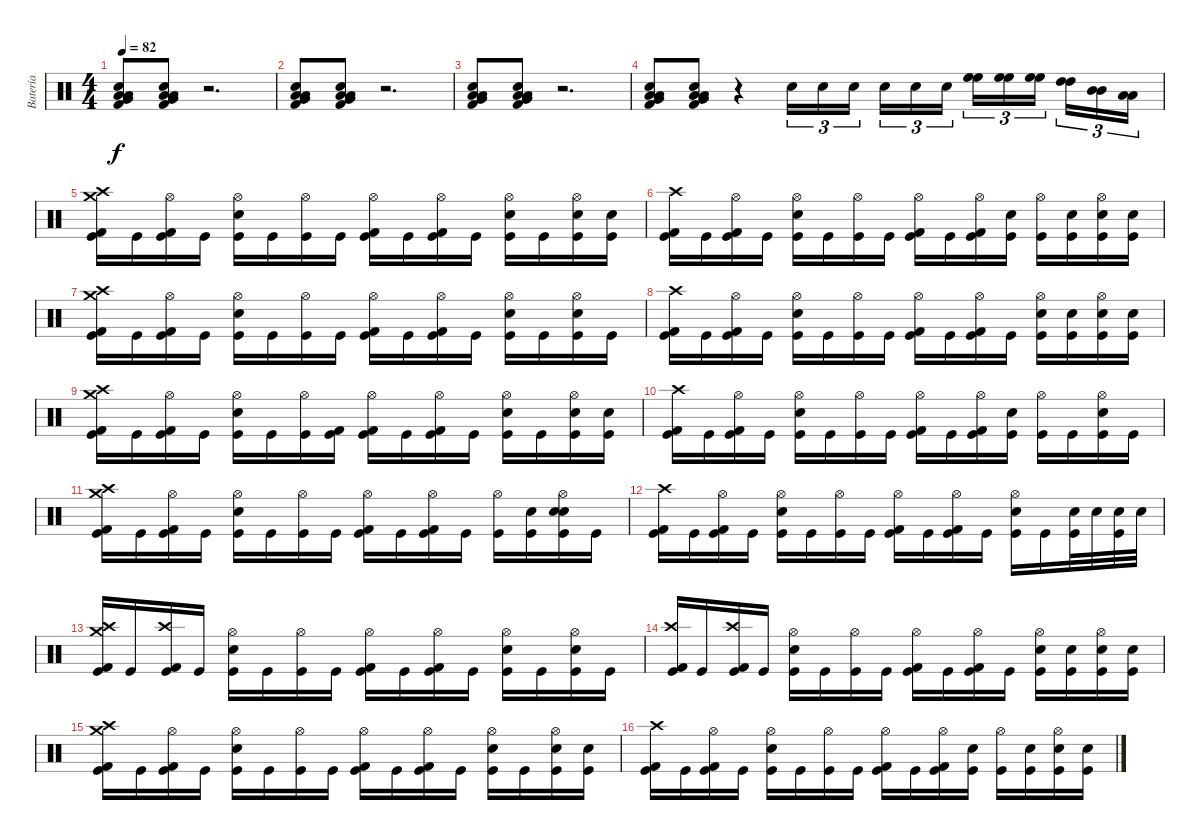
\track ("Batería" "Batería") {instrument percussion}
\staff {score}
\articulation defaults
\ts (4 4)
\tempo 82
\clef neutral
\ks c
("Kick (hit) 2" "Low Tom (hit)" "Very Low Tom (hit)" "Low Floor Tom (hit)" "Snare (hit) 2").8{dy f} ("Kick (hit) 2" "Low Tom (hit)" "Very Low Tom (hit)" "Low Floor Tom (hit)" "Snare (hit) 2").8 r.2{d} |
("Kick (hit) 2" "Low Tom (hit)" "Very Low Tom (hit)" "Low Floor Tom (hit)" "Snare (hit) 2").8 ("Kick (hit) 2" "Low Tom (hit)" "Very Low Tom (hit)" "Low Floor Tom (hit)" "Snare (hit) 2").8 r.2{d} |
("Kick (hit) 2" "Low Tom (hit)" "Very Low Tom (hit)" "Low Floor Tom (hit)" "Snare (hit) 2").8 ("Kick (hit) 2" "Low Tom (hit)" "Very Low Tom (hit)" "Low Floor Tom (hit)" "Snare (hit) 2").8 r.2{d} |
("Kick (hit) 2" "Low Tom (hit)" "Very Low Tom (hit)" "Low Floor Tom (hit)" "Snare (hit) 2").8 ("Kick (hit) 2" "Low Tom (hit)" "Very Low Tom (hit)" "Low Floor Tom (hit)" "Snare (hit) 2").8 r.4 "Snare (hit) 2".16{tu (3 2)} "Snare (hit) 2".16{tu (3 2)} "Snare (hit) 2".16{tu (3 2)} "Snare (hit) 2".16{tu (3 2)} "Snare (hit) 2".16{tu (3 2)} "Snare (hit) 2".16{tu (3 2)} ("High Floor Tom (hit)" "High Floor Tom (hit)").16{tu (3 2)} ("High Floor Tom (hit)" "High Floor Tom (hit)").16{tu (3 2)} ("High Floor Tom (hit)" "High Floor Tom (hit)").16{tu (3 2)} ("High Tom (hit)" "High Tom (hit)").16{tu (3 2)} ("Mid Tom (hit)" "Mid Tom (hit)").16{tu (3 2)} ("Low Tom (hit)" "Low Tom (hit)").16{tu (3 2)} |
("Crash high (hit)" "Crash medium (hit)" "Kick (hit) 2" "Kick (hit)").16 "Kick (hit)".16 ("Hi-Hat (open)" "Kick (hit) 2" "Kick (hit)").16 "Kick (hit)".16 ("Hi-Hat (open)" "Snare (hit) 2" "Kick (hit)").16 "Kick (hit)".16 ("Hi-Hat (open)" "Kick (hit)").16 "Kick (hit)".16 ("Hi-Hat (open)" "Kick (hit) 2" "Kick (hit)").16 "Kick (hit)".16 ("Hi-Hat (open)" "Kick (hit) 2" "Kick (hit)").16 "Kick (hit)".16 ("Hi-Hat (open)" "Snare (hit) 2" "Kick (hit)").16 "Kick (hit)".16 ("Hi-Hat (open)" "Snare (hit) 2" "Kick (hit)").16 ("Snare (hit) 2" "Kick (hit)").16 |
("Crash high (hit)" "Kick (hit) 2" "Kick (hit)").16 "Kick (hit)".16 ("Hi-Hat (open)" "Kick (hit) 2" "Kick (hit)").16 "Kick (hit)".16 ("Hi-Hat (open)" "Snare (hit) 2" "Kick (hit)").16 "Kick (hit)".16 ("Hi-Hat (open)" "Kick (hit)").16 "Kick (hit)".16 ("Hi-Hat (open)" "Kick (hit) 2" "Kick (hit)").16 "Kick (hit)".16 ("Hi-Hat (open)" "Kick (hit) 2" "Kick (hit)").16 ("Snare (hit) 2" "Kick (hit)").16 ("Hi-Hat (open)" "Kick (hit)").16 ("Snare (hit) 2" "Kick (hit)").16 ("Hi-Hat (open)" "Snare (hit) 2" "Kick (hit)").16 ("Snare (hit) 2" "Kick (hit)").16 |
("Crash high (hit)" "Crash medium (hit)" "Kick (hit) 2" "Kick (hit)").16 "Kick (hit)".16 ("Hi-Hat (open)" "Kick (hit) 2" "Kick (hit)").16 "Kick (hit)".16 ("Hi-Hat (open)" "Snare (hit) 2" "Kick (hit)").16 "Kick (hit)".16 ("Hi-Hat (open)" "Kick (hit)").16 "Kick (hit)".16 ("Hi-Hat (open)" "Kick (hit) 2" "Kick (hit)").16 "Kick (hit)".16 ("Hi-Hat (open)" "Kick (hit) 2" "Kick (hit)").16 "Kick (hit)".16 ("Hi-Hat (open)" "Snare (hit) 2" "Kick (hit)").16 "Kick (hit)".16 ("Hi-Hat (open)" "Snare (hit) 2" "Kick (hit)").16 "Kick (hit)".16 |
("Crash high (hit)" "Kick (hit) 2" "Kick (hit)").16 "Kick (hit)".16 ("Hi-Hat (open)" "Kick (hit) 2" "Kick (hit)").16 "Kick (hit)".16 ("Hi-Hat (open)" "Snare (hit) 2" "Kick (hit)").16 "Kick (hit)".16 ("Hi-Hat (open)" "Kick (hit)").16 "Kick (hit)".16 ("Hi-Hat (open)" "Kick (hit) 2" "Kick (hit)").16 "Kick (hit)".16 ("Hi-Hat (open)" "Kick (hit) 2" "Kick (hit)").16 "Kick (hit)".16 ("Hi-Hat (open)" "Snare (hit) 2" "Kick (hit)").16 ("Snare (hit) 2" "Kick (hit)").16 ("Hi-Hat (open)" "Snare (hit) 2" "Kick (hit)").16 ("Snare (hit) 2" "Kick (hit)").16 |
("Crash high (hit)" "Crash medium (hit)" "Kick (hit) 2" "Kick (hit)").16 "Kick (hit)".16 ("Hi-Hat (open)" "Kick (hit) 2" "Kick (hit)").16 "Kick (hit)".16 ("Hi-Hat (open)" "Snare (hit) 2" "Kick (hit)").16 "Kick (hit)".16 ("Hi-Hat (open)" "Kick (hit)").16 ("Kick (hit) 2" "Kick (hit)").16 ("Hi-Hat (open)" "Kick (hit) 2" "Kick (hit)").16 "Kick (hit)".16 ("Hi-Hat (open)" "Kick (hit) 2" "Kick (hit)").16 "Kick (hit)".16 ("Hi-Hat (open)" "Snare (hit) 2" "Kick (hit)").16 "Kick (hit)".16 ("Hi-Hat (open)" "Snare (hit) 2" "Kick (hit)").16 ("Snare (hit) 2" "Kick (hit)").16 |
("Crash high (hit)" "Kick (hit) 2" "Kick (hit)").16 "Kick (hit)".16 ("Hi-Hat (open)" "Kick (hit) 2" "Kick (hit)").16 "Kick (hit)".16 ("Hi-Hat (open)" "Snare (hit) 2" "Kick (hit)").16 "Kick (hit)".16 ("Hi-Hat (open)" "Kick (hit)").16 "Kick (hit)".16 ("Hi-Hat (open)" "Kick (hit) 2" "Kick (hit)").16 "Kick (hit)".16 ("Hi-Hat (open)" "Kick (hit) 2" "Kick (hit)").16 ("Snare (hit) 2" "Kick (hit)").16 ("Hi-Hat (open)" "Kick (hit)").16 "Kick (hit)".16 ("Hi-Hat (open)" "Snare (hit) 2" "Kick (hit)").16 "Kick (hit)".16 |
("Crash high (hit)" "Crash medium (hit)" "Kick (hit) 2" "Kick (hit)").16 "Kick (hit)".16 ("Hi-Hat (open)" "Kick (hit) 2" "Kick (hit)").16 "Kick (hit)".16 ("Hi-Hat (open)" "Snare (hit) 2" "Kick (hit)").16 "Kick (hit)".16 ("Hi-Hat (open)" "Kick (hit)").16 "Kick (hit)".16 ("Hi-Hat (open)" "Kick (hit) 2" "Kick (hit)").16 "Kick (hit)".16 ("Hi-Hat (open)" "Kick (hit) 2" "Kick (hit)").16 "Kick (hit)".16 ("Hi-Hat (open)" "Kick (hit)").16 ("Snare (hit) 2" "Kick (hit)").16 ("Hi-Hat (open)" "Snare (hit) 2" "Snare (hit) 2" "Kick (hit)").16{bd 240} "Kick (hit)".16{bd 240} |
("Crash high (hit)" "Kick (hit) 2" "Kick (hit)").16 "Kick (hit)".16 ("Hi-Hat (open)" "Kick (hit) 2" "Kick (hit)").16 "Kick (hit)".16 ("Hi-Hat (open)" "Snare (hit) 2" "Kick (hit)").16 "Kick (hit)".16 ("Hi-Hat (open)" "Kick (hit)").16 "Kick (hit)".16 ("Hi-Hat (open)" "Kick (hit) 2" "Kick (hit)").16 "Kick (hit)".16 ("Hi-Hat (open)" "Kick (hit) 2" "Kick (hit)").16 "Kick (hit)".16 ("Hi-Hat (open)" "Snare (hit) 2" "Kick (hit)").16 "Kick (hit)".16 ("Snare (hit) 2" "Kick (hit)").32 "Snare (hit) 2".32 ("Snare (hit) 2" "Kick (hit)").32 "Snare (hit) 2".32 |
("Crash high (hit)" "Crash medium (hit)" "Kick (hit) 2" "Kick (hit)").16 "Kick (hit)".16 ("Crash high (hit)" "Kick (hit) 2" "Kick (hit)").16 "Kick (hit)".16 ("Hi-Hat (open)" "Snare (hit) 2" "Kick (hit)").16 "Kick (hit)".16 ("Hi-Hat (open)" "Kick (hit)").16 "Kick (hit)".16 ("Hi-Hat (open)" "Kick (hit) 2" "Kick (hit)").16 "Kick (hit)".16 ("Hi-Hat (open)" "Kick (hit) 2" "Kick (hit)").16 "Kick (hit)".16 ("Hi-Hat (open)" "Snare (hit) 2" "Kick (hit)").16 "Kick (hit)".16 ("Hi-Hat (open)" "Snare (hit) 2" "Kick (hit)").16 "Kick (hit)".16 |
("Crash high (hit)" "Kick (hit) 2" "Kick (hit)").16 "Kick (hit)".16 ("Crash high (hit)" "Kick (hit) 2" "Kick (hit)").16 "Kick (hit)".16 ("Hi-Hat (open)" "Snare (hit) 2" "Kick (hit)").16 "Kick (hit)".16 ("Hi-Hat (open)" "Kick (hit)").16 "Kick (hit)".16 ("Hi-Hat (open)" "Kick (hit) 2" "Kick (hit)").16 "Kick (hit)".16 ("Hi-Hat (open)" "Kick (hit) 2" "Kick (hit)").16 "Kick (hit)".16 ("Hi-Hat (open)" "Snare (hit) 2" "Kick (hit)").16 ("Snare (hit) 2" "Kick (hit)").16 ("Hi-Hat (open)" "Snare (hit) 2" "Kick (hit)").16 ("Snare (hit) 2" "Kick (hit)").16 |
("Crash high (hit)" "Crash medium (hit)" "Kick (hit) 2" "Kick (hit)").16 "Kick (hit)".16 ("Hi-Hat (open)" "Kick (hit) 2" "Kick (hit)").16 "Kick (hit)".16 ("Hi-Hat (open)" "Snare (hit) 2" "Kick (hit)").16 "Kick (hit)".16 ("Hi-Hat (open)" "Kick (hit)").16 "Kick (hit)".16 ("Hi-Hat (open)" "Kick (hit) 2" "Kick (hit)").16 "Kick (hit)".16 ("Hi-Hat (open)" "Kick (hit) 2" "Kick (hit)").16 "Kick (hit)".16 ("Hi-Hat (open)" "Snare (hit) 2" "Kick (hit)").16 "Kick (hit)".16 ("Hi-Hat (open)" "Snare (hit) 2" "Kick (hit)").16 ("Snare (hit) 2" "Kick (hit)").16 |
("Crash high (hit)" "Kick (hit) 2" "Kick (hit)").16 "Kick (hit)".16 ("Hi-Hat (open)" "Kick (hit) 2" "Kick (hit)").16 "Kick (hit)".16 ("Hi-Hat (open)" "Snare (hit) 2" "Kick (hit)").16 "Kick (hit)".16 ("Hi-Hat (open)" "Kick (hit)").16 "Kick (hit)".16 ("Hi-Hat (open)" "Kick (hit) 2" "Kick (hit)").16 "Kick (hit)".16 ("Hi-Hat (open)" "Kick (hit) 2" "Kick (hit)").16 ("Snare (hit) 2" "Kick (hit)").16 ("Hi-Hat (open)" "Kick (hit)").16 ("Snare (hit) 2" "Kick (hit)").16 ("Hi-Hat (open)" "Snare (hit) 2" "Kick (hit)").16 ("Snare (hit) 2" "Kick (hit)").16
